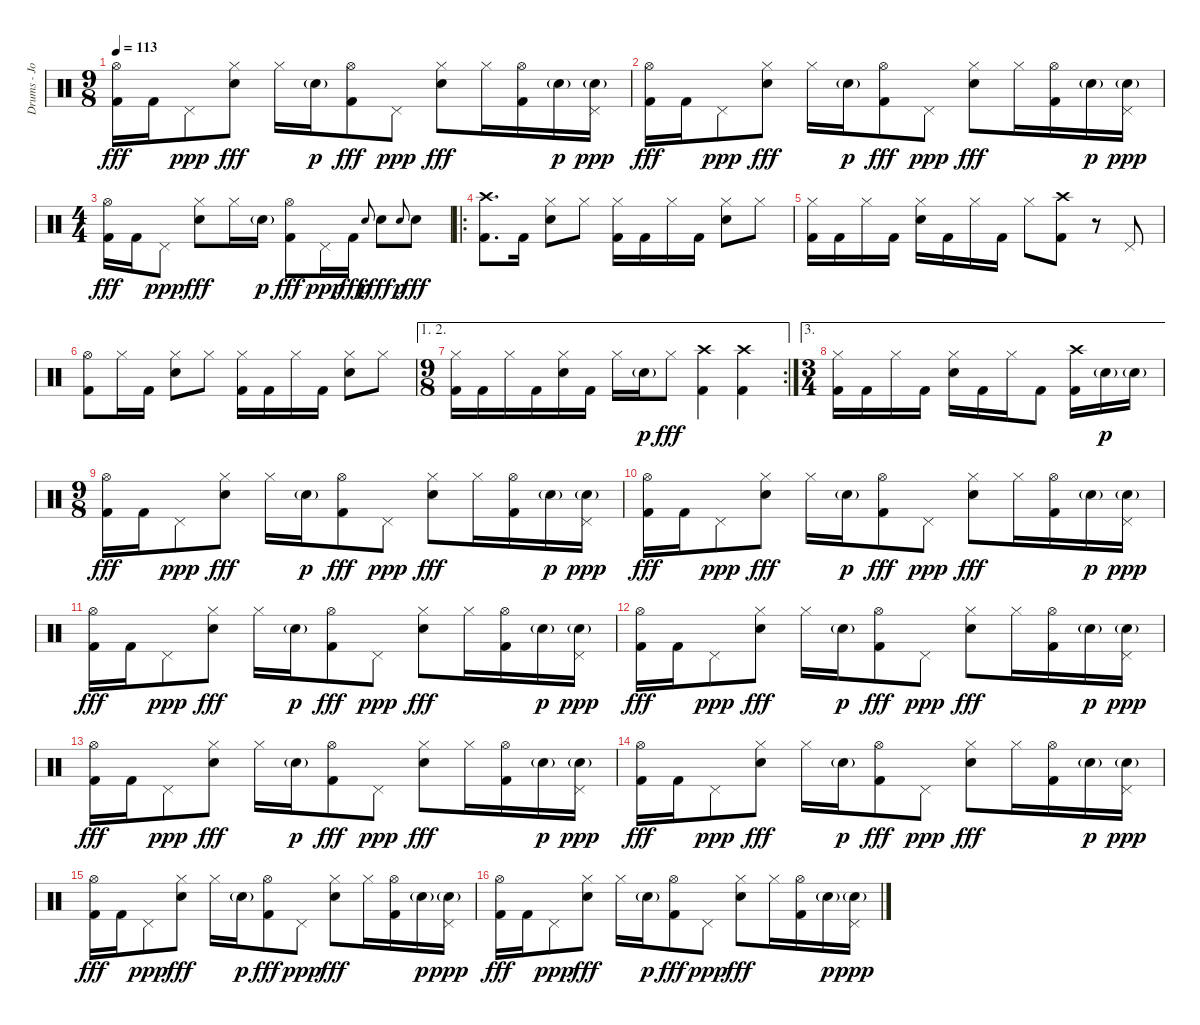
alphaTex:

\track ("Drums - John Bonham" "Drums - Jo") {instrument percussion}
\staff {score}
\articulation defaults
\ts (9 8)
\tempo 113
\clef neutral
\ks c
("Hi-Hat (open)" "Kick (hit) 2").16{dy fff} "Kick (hit) 2".16 "Pedal Hi-Hat (hit)".8{dy ppp} ("Hi-Hat (closed)" "Electric Snare (hit)").8{dy fff} "Hi-Hat (closed)".16 "Electric Snare (hit)"{g}.16{dy p} ("Hi-Hat (open)" "Kick (hit) 2").8{dy fff} "Pedal Hi-Hat (hit)".8{dy ppp} ("Hi-Hat (closed)" "Electric Snare (hit)").8{dy fff} "Hi-Hat (closed)".16 ("Hi-Hat (open)" "Kick (hit) 2").16 "Electric Snare (hit)"{g}.16{dy p} ("Electric Snare (hit)"{g} "Pedal Hi-Hat (hit)").16{dy ppp} |
("Hi-Hat (open)" "Kick (hit) 2").16{dy fff} "Kick (hit) 2".16 "Pedal Hi-Hat (hit)".8{dy ppp} ("Hi-Hat (closed)" "Electric Snare (hit)").8{dy fff} "Hi-Hat (closed)".16 "Electric Snare (hit)"{g}.16{dy p} ("Hi-Hat (open)" "Kick (hit) 2").8{dy fff} "Pedal Hi-Hat (hit)".8{dy ppp} ("Hi-Hat (closed)" "Electric Snare (hit)").8{dy fff} "Hi-Hat (closed)".16 ("Hi-Hat (open)" "Kick (hit) 2").16 "Electric Snare (hit)"{g}.16{dy p} ("Electric Snare (hit)"{g} "Pedal Hi-Hat (hit)").16{dy ppp} |
\ts (4 4)
("Hi-Hat (open)" "Kick (hit) 2").16{dy fff} "Kick (hit) 2".16 "Pedal Hi-Hat (hit)".8{dy ppp} ("Hi-Hat (closed)" "Electric Snare (hit)").8{dy fff} "Hi-Hat (closed)".16 "Electric Snare (hit)"{g}.16{dy p} ("Hi-Hat (open)" "Kick (hit) 2").8{dy fff} "Pedal Hi-Hat (hit)".16{dy ppp} "Kick (hit) 2".16{dy fff} "Electric Snare (hit)".8{gr onbeat dy p} "Electric Snare (hit)".8{dy fff} "Electric Snare (hit)".8{gr onbeat dy p} "Electric Snare (hit)".8{dy fff} |
\ro
("Crash high (hit)" "Kick (hit) 2").8{d} "Kick (hit) 2".16 ("Hi-Hat (closed)" "Electric Snare (hit)").8 "Hi-Hat (closed)".8 ("Hi-Hat (closed)" "Kick (hit) 2").16 "Kick (hit) 2".16 "Hi-Hat (closed)".16 "Kick (hit) 2".16 ("Hi-Hat (closed)" "Electric Snare (hit)").8 "Hi-Hat (closed)".8 |
("Hi-Hat (closed)" "Kick (hit) 2").16 "Kick (hit) 2".16 "Hi-Hat (closed)".16 "Kick (hit) 2".16 ("Hi-Hat (closed)" "Electric Snare (hit)").16 "Kick (hit) 2".16 "Hi-Hat (closed)".16 "Kick (hit) 2".16 "Hi-Hat (closed)".8 ("Crash high (hit)" "Kick (hit) 2").8 r.8 "Pedal Hi-Hat (hit)".8 |
("Hi-Hat (open)" "Kick (hit) 2").8 "Hi-Hat (closed)".16 "Kick (hit) 2".16 ("Hi-Hat (closed)" "Electric Snare (hit)").8 "Hi-Hat (closed)".8 ("Hi-Hat (closed)" "Kick (hit) 2").16 "Kick (hit) 2".16 "Hi-Hat (closed)".16 "Kick (hit) 2".16 ("Hi-Hat (closed)" "Electric Snare (hit)").8 "Hi-Hat (closed)".8 |
\ae (1 2)
\rc 2
\ts (9 8)
("Hi-Hat (closed)" "Kick (hit) 2").16 "Kick (hit) 2".16 "Hi-Hat (closed)".16 "Kick (hit) 2".16 ("Hi-Hat (closed)" "Electric Snare (hit)").16 "Kick (hit) 2".16 "Hi-Hat (closed)".16 "Electric Snare (hit)"{g}.16{dy p} "Hi-Hat (closed)".8{dy fff} ("Crash high (hit)" "Kick (hit) 2").4 ("Crash high (hit)" "Kick (hit) 2").4 |
\ae 3
\ts (3 4)
("Hi-Hat (closed)" "Kick (hit) 2").16 "Kick (hit) 2".16 "Hi-Hat (closed)".16 "Kick (hit) 2".16 ("Hi-Hat (closed)" "Electric Snare (hit)").16 "Kick (hit) 2".16 "Hi-Hat (closed)".16 "Kick (hit) 2".8 ("Crash high (hit)" "Kick (hit) 2").16 "Electric Snare (hit)"{g}.16{dy p} "Electric Snare (hit)"{g}.16 |
\ts (9 8)
("Hi-Hat (open)" "Kick (hit) 2").16{dy fff} "Kick (hit) 2".16 "Pedal Hi-Hat (hit)".8{dy ppp} ("Hi-Hat (closed)" "Electric Snare (hit)").8{dy fff} "Hi-Hat (closed)".16 "Electric Snare (hit)"{g}.16{dy p} ("Hi-Hat (open)" "Kick (hit) 2").8{dy fff} "Pedal Hi-Hat (hit)".8{dy ppp} ("Hi-Hat (closed)" "Electric Snare (hit)").8{dy fff} "Hi-Hat (closed)".16 ("Hi-Hat (open)" "Kick (hit) 2").16 "Electric Snare (hit)"{g}.16{dy p} ("Electric Snare (hit)"{g} "Pedal Hi-Hat (hit)").16{dy ppp} |
("Hi-Hat (open)" "Kick (hit) 2").16{dy fff} "Kick (hit) 2".16 "Pedal Hi-Hat (hit)".8{dy ppp} ("Hi-Hat (closed)" "Electric Snare (hit)").8{dy fff} "Hi-Hat (closed)".16 "Electric Snare (hit)"{g}.16{dy p} ("Hi-Hat (open)" "Kick (hit) 2").8{dy fff} "Pedal Hi-Hat (hit)".8{dy ppp} ("Hi-Hat (closed)" "Electric Snare (hit)").8{dy fff} "Hi-Hat (closed)".16 ("Hi-Hat (open)" "Kick (hit) 2").16 "Electric Snare (hit)"{g}.16{dy p} ("Electric Snare (hit)"{g} "Pedal Hi-Hat (hit)").16{dy ppp} |
("Hi-Hat (open)" "Kick (hit) 2").16{dy fff} "Kick (hit) 2".16 "Pedal Hi-Hat (hit)".8{dy ppp} ("Hi-Hat (closed)" "Electric Snare (hit)").8{dy fff} "Hi-Hat (closed)".16 "Electric Snare (hit)"{g}.16{dy p} ("Hi-Hat (open)" "Kick (hit) 2").8{dy fff} "Pedal Hi-Hat (hit)".8{dy ppp} ("Hi-Hat (closed)" "Electric Snare (hit)").8{dy fff} "Hi-Hat (closed)".16 ("Hi-Hat (open)" "Kick (hit) 2").16 "Electric Snare (hit)"{g}.16{dy p} ("Electric Snare (hit)"{g} "Pedal Hi-Hat (hit)").16{dy ppp} |
("Hi-Hat (open)" "Kick (hit) 2").16{dy fff} "Kick (hit) 2".16 "Pedal Hi-Hat (hit)".8{dy ppp} ("Hi-Hat (closed)" "Electric Snare (hit)").8{dy fff} "Hi-Hat (closed)".16 "Electric Snare (hit)"{g}.16{dy p} ("Hi-Hat (open)" "Kick (hit) 2").8{dy fff} "Pedal Hi-Hat (hit)".8{dy ppp} ("Hi-Hat (closed)" "Electric Snare (hit)").8{dy fff} "Hi-Hat (closed)".16 ("Hi-Hat (open)" "Kick (hit) 2").16 "Electric Snare (hit)"{g}.16{dy p} ("Electric Snare (hit)"{g} "Pedal Hi-Hat (hit)").16{dy ppp} |
("Hi-Hat (open)" "Kick (hit) 2").16{dy fff} "Kick (hit) 2".16 "Pedal Hi-Hat (hit)".8{dy ppp} ("Hi-Hat (closed)" "Electric Snare (hit)").8{dy fff} "Hi-Hat (closed)".16 "Electric Snare (hit)"{g}.16{dy p} ("Hi-Hat (open)" "Kick (hit) 2").8{dy fff} "Pedal Hi-Hat (hit)".8{dy ppp} ("Hi-Hat (closed)" "Electric Snare (hit)").8{dy fff} "Hi-Hat (closed)".16 ("Hi-Hat (open)" "Kick (hit) 2").16 "Electric Snare (hit)"{g}.16{dy p} ("Electric Snare (hit)"{g} "Pedal Hi-Hat (hit)").16{dy ppp} |
("Hi-Hat (open)" "Kick (hit) 2").16{dy fff} "Kick (hit) 2".16 "Pedal Hi-Hat (hit)".8{dy ppp} ("Hi-Hat (closed)" "Electric Snare (hit)").8{dy fff} "Hi-Hat (closed)".16 "Electric Snare (hit)"{g}.16{dy p} ("Hi-Hat (open)" "Kick (hit) 2").8{dy fff} "Pedal Hi-Hat (hit)".8{dy ppp} ("Hi-Hat (closed)" "Electric Snare (hit)").8{dy fff} "Hi-Hat (closed)".16 ("Hi-Hat (open)" "Kick (hit) 2").16 "Electric Snare (hit)"{g}.16{dy p} ("Electric Snare (hit)"{g} "Pedal Hi-Hat (hit)").16{dy ppp} |
("Hi-Hat (open)" "Kick (hit) 2").16{dy fff} "Kick (hit) 2".16 "Pedal Hi-Hat (hit)".8{dy ppp} ("Hi-Hat (closed)" "Electric Snare (hit)").8{dy fff} "Hi-Hat (closed)".16 "Electric Snare (hit)"{g}.16{dy p} ("Hi-Hat (open)" "Kick (hit) 2").8{dy fff} "Pedal Hi-Hat (hit)".8{dy ppp} ("Hi-Hat (closed)" "Electric Snare (hit)").8{dy fff} "Hi-Hat (closed)".16 ("Hi-Hat (open)" "Kick (hit) 2").16 "Electric Snare (hit)"{g}.16{dy p} ("Electric Snare (hit)"{g} "Pedal Hi-Hat (hit)").16{dy ppp} |
("Hi-Hat (open)" "Kick (hit) 2").16{dy fff} "Kick (hit) 2".16 "Pedal Hi-Hat (hit)".8{dy ppp} ("Hi-Hat (closed)" "Electric Snare (hit)").8{dy fff} "Hi-Hat (closed)".16 "Electric Snare (hit)"{g}.16{dy p} ("Hi-Hat (open)" "Kick (hit) 2").8{dy fff} "Pedal Hi-Hat (hit)".8{dy ppp} ("Hi-Hat (closed)" "Electric Snare (hit)").8{dy fff} "Hi-Hat (closed)".16 ("Hi-Hat (open)" "Kick (hit) 2").16 "Electric Snare (hit)"{g}.16{dy p} ("Electric Snare (hit)"{g} "Pedal Hi-Hat (hit)").16{dy ppp}
